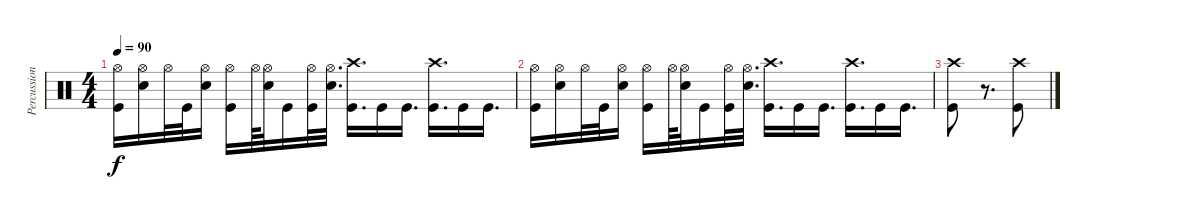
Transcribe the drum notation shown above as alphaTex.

\track ("Percussion" "Percussion") {instrument percussion}
\staff {score}
\articulation defaults
\ts (4 4)
\tempo 90
\clef neutral
\ks c
("Hi-Hat (open)" "Kick (hit)").16{dy f} ("Hi-Hat (open)" "Electric Snare (hit)").16 "Hi-Hat (open)".32 "Kick (hit)".32 ("Hi-Hat (open)" "Electric Snare (hit)").16 ("Hi-Hat (open)" "Kick (hit)").16 "Hi-Hat (open)".64 ("Hi-Hat (open)" "Electric Snare (hit)").32 "Kick (hit)".16 ("Hi-Hat (open)" "Kick (hit)").32 ("Hi-Hat (open)" "Electric Snare (hit)").32{d} ("Crash high (hit)" "Kick (hit)").16{d} "Kick (hit)".16 "Kick (hit)".16{d} ("Crash high (hit)" "Kick (hit)").16{d} "Kick (hit)".16 "Kick (hit)".16{d} |
("Hi-Hat (open)" "Kick (hit)").16 ("Hi-Hat (open)" "Electric Snare (hit)").16 "Hi-Hat (open)".32 "Kick (hit)".32 ("Hi-Hat (open)" "Electric Snare (hit)").16 ("Hi-Hat (open)" "Kick (hit)").16 "Hi-Hat (open)".64 ("Hi-Hat (open)" "Electric Snare (hit)").32 "Kick (hit)".16 ("Hi-Hat (open)" "Kick (hit)").32 ("Hi-Hat (open)" "Electric Snare (hit)").32{d} ("Crash high (hit)" "Kick (hit)").16{d} "Kick (hit)".16 "Kick (hit)".16{d} ("Crash high (hit)" "Kick (hit)").16{d} "Kick (hit)".16 "Kick (hit)".16{d} |
("Crash high (hit)" "Kick (hit)").8 r.8{d} ("Crash high (hit)" "Kick (hit)").8
